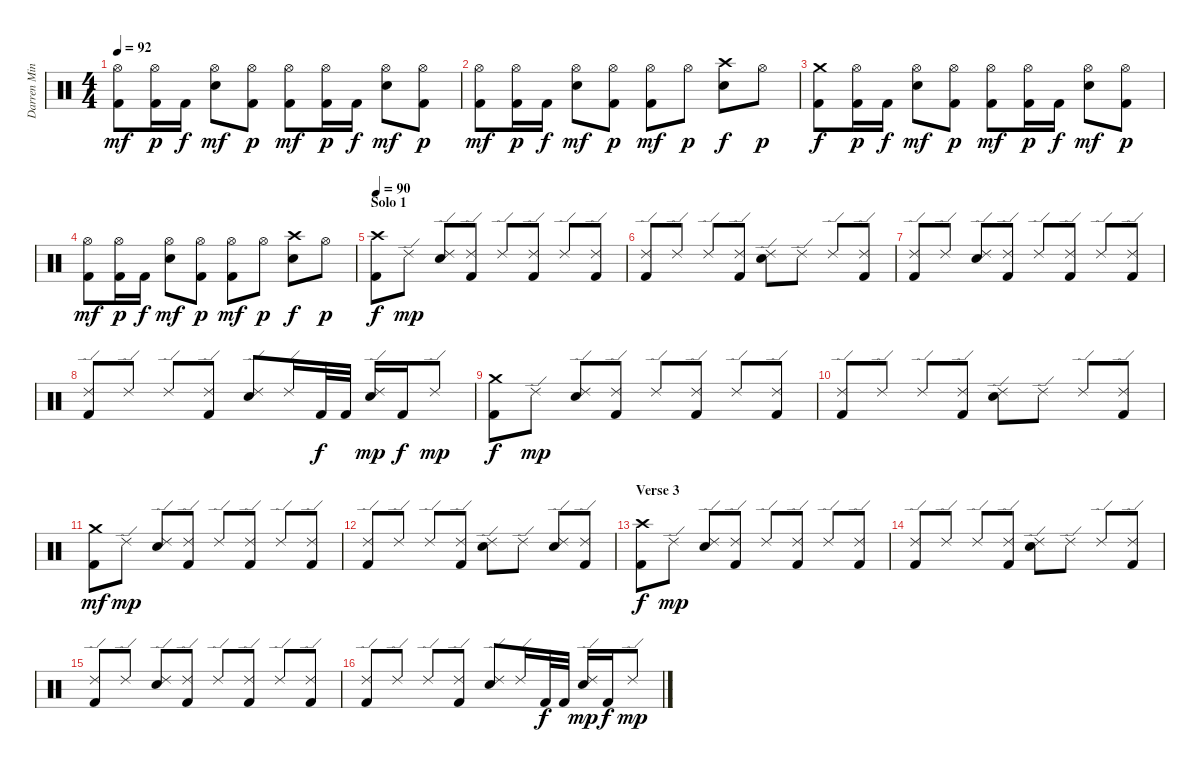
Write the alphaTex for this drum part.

\track ("Darren Minter" "Darren Min") {instrument percussion}
\staff {score}
\articulation defaults
\ts (4 4)
\tempo 92
\clef neutral
\ks c
("Kick (hit) 2" "Hi-Hat (open)").8{dy mf} ("Kick (hit) 2" "Hi-Hat (open)").16{dy p} "Kick (hit) 2".16{dy f} ("Hi-Hat (open)" "Snare (hit) 2").8{dy mf} ("Kick (hit) 2" "Hi-Hat (open)").8{dy p} ("Kick (hit) 2" "Hi-Hat (open)").8{dy mf} ("Kick (hit) 2" "Hi-Hat (open)").16{dy p} "Kick (hit) 2".16{dy f} ("Hi-Hat (open)" "Snare (hit) 2").8{dy mf} ("Kick (hit) 2" "Hi-Hat (open)").8{dy p} |
("Kick (hit) 2" "Hi-Hat (open)").8{dy mf} ("Kick (hit) 2" "Hi-Hat (open)").16{dy p} "Kick (hit) 2".16{dy f} ("Hi-Hat (open)" "Snare (hit) 2").8{dy mf} ("Kick (hit) 2" "Hi-Hat (open)").8{dy p} ("Kick (hit) 2" "Hi-Hat (open)").8{dy mf} "Hi-Hat (open)".8{dy p} ("Crash high (hit)" "Snare (hit) 2").8{dy f} "Hi-Hat (open)".8{dy p} |
("Kick (hit) 2" "Crash medium (hit)").8{dy f} ("Kick (hit) 2" "Hi-Hat (open)").16{dy p} "Kick (hit) 2".16{dy f} ("Hi-Hat (open)" "Snare (hit) 2").8{dy mf} ("Kick (hit) 2" "Hi-Hat (open)").8{dy p} ("Kick (hit) 2" "Hi-Hat (open)").8{dy mf} ("Kick (hit) 2" "Hi-Hat (open)").16{dy p} "Kick (hit) 2".16{dy f} ("Hi-Hat (open)" "Snare (hit) 2").8{dy mf} ("Kick (hit) 2" "Hi-Hat (open)").8{dy p} |
("Kick (hit) 2" "Hi-Hat (open)").8{dy mf} ("Kick (hit) 2" "Hi-Hat (open)").16{dy p} "Kick (hit) 2".16{dy f} ("Hi-Hat (open)" "Snare (hit) 2").8{dy mf} ("Kick (hit) 2" "Hi-Hat (open)").8{dy p} ("Kick (hit) 2" "Hi-Hat (open)").8{dy mf} "Hi-Hat (open)".8{dy p} ("Crash high (hit)" "Snare (hit) 2").8{dy f} "Hi-Hat (open)".8{dy p} |
\section ("" "Solo 1")
\tempo 90
("Kick (hit) 2" "Crash high (hit)").8{dy f} "Ride (edge) 2".8{dy mp} ("Ride (edge) 2" "Snare (hit) 2").8 ("Kick (hit) 2" "Ride (edge) 2").8 "Ride (edge) 2".8 ("Kick (hit) 2" "Ride (edge) 2").8 "Ride (edge) 2".8 ("Kick (hit) 2" "Ride (edge) 2").8 |
("Kick (hit) 2" "Ride (edge) 2").8 "Ride (edge) 2".8 "Ride (edge) 2".8 ("Kick (hit) 2" "Ride (edge) 2").8 ("Ride (edge) 2" "Snare (hit) 2").8 "Ride (edge) 2".8 "Ride (edge) 2".8 ("Kick (hit) 2" "Ride (edge) 2").8 |
("Kick (hit) 2" "Ride (edge) 2").8 "Ride (edge) 2".8 ("Ride (edge) 2" "Snare (hit) 2").8 ("Kick (hit) 2" "Ride (edge) 2").8 "Ride (edge) 2".8 ("Kick (hit) 2" "Ride (edge) 2").8 "Ride (edge) 2".8 ("Kick (hit) 2" "Ride (edge) 2").8 |
("Kick (hit) 2" "Ride (edge) 2").8 "Ride (edge) 2".8 "Ride (edge) 2".8 ("Kick (hit) 2" "Ride (edge) 2").8 ("Ride (edge) 2" "Snare (hit) 2").8 "Ride (edge) 2".16 "Kick (hit) 2".32{dy f} "Kick (hit) 2".32 ("Ride (edge) 2" "Snare (hit) 2").16{dy mp} "Kick (hit) 2".16{dy f} "Ride (edge) 2".8{dy mp} |
("Kick (hit) 2" "Crash medium (hit)").8{dy f} "Ride (edge) 2".8{dy mp} ("Ride (edge) 2" "Snare (hit) 2").8 ("Kick (hit) 2" "Ride (edge) 2").8 "Ride (edge) 2".8 ("Kick (hit) 2" "Ride (edge) 2").8 "Ride (edge) 2".8 ("Kick (hit) 2" "Ride (edge) 2").8 |
("Kick (hit) 2" "Ride (edge) 2").8 "Ride (edge) 2".8 "Ride (edge) 2".8 ("Kick (hit) 2" "Ride (edge) 2").8 ("Ride (edge) 2" "Snare (hit) 2").8 "Ride (edge) 2".8 "Ride (edge) 2".8 ("Kick (hit) 2" "Ride (edge) 2").8 |
("Kick (hit) 2" "Crash medium (hit)").8{dy mf} "Ride (edge) 2".8{dy mp} ("Ride (edge) 2" "Snare (hit) 2").8 ("Kick (hit) 2" "Ride (edge) 2").8 "Ride (edge) 2".8 ("Kick (hit) 2" "Ride (edge) 2").8 "Ride (edge) 2".8 ("Kick (hit) 2" "Ride (edge) 2").8 |
("Kick (hit) 2" "Ride (edge) 2").8 "Ride (edge) 2".8 "Ride (edge) 2".8 ("Kick (hit) 2" "Ride (edge) 2").8 ("Ride (edge) 2" "Snare (hit) 2").8 "Ride (edge) 2".8 ("Ride (edge) 2" "Snare (hit) 2").8 ("Kick (hit) 2" "Ride (edge) 2").8 |
\section ("" "Verse 3")
("Kick (hit) 2" "Crash high (hit)").8{dy f} "Ride (edge) 2".8{dy mp} ("Ride (edge) 2" "Snare (hit) 2").8 ("Kick (hit) 2" "Ride (edge) 2").8 "Ride (edge) 2".8 ("Kick (hit) 2" "Ride (edge) 2").8 "Ride (edge) 2".8 ("Kick (hit) 2" "Ride (edge) 2").8 |
("Kick (hit) 2" "Ride (edge) 2").8 "Ride (edge) 2".8 "Ride (edge) 2".8 ("Kick (hit) 2" "Ride (edge) 2").8 ("Ride (edge) 2" "Snare (hit) 2").8 "Ride (edge) 2".8 "Ride (edge) 2".8 ("Kick (hit) 2" "Ride (edge) 2").8 |
("Kick (hit) 2" "Ride (edge) 2").8 "Ride (edge) 2".8 ("Ride (edge) 2" "Snare (hit) 2").8 ("Kick (hit) 2" "Ride (edge) 2").8 "Ride (edge) 2".8 ("Kick (hit) 2" "Ride (edge) 2").8 "Ride (edge) 2".8 ("Kick (hit) 2" "Ride (edge) 2").8 |
("Kick (hit) 2" "Ride (edge) 2").8 "Ride (edge) 2".8 "Ride (edge) 2".8 ("Kick (hit) 2" "Ride (edge) 2").8 ("Ride (edge) 2" "Snare (hit) 2").8 "Ride (edge) 2".16 "Kick (hit) 2".32{dy f} "Kick (hit) 2".32 ("Ride (edge) 2" "Snare (hit) 2").16{dy mp} "Kick (hit) 2".16{dy f} "Ride (edge) 2".8{dy mp}
